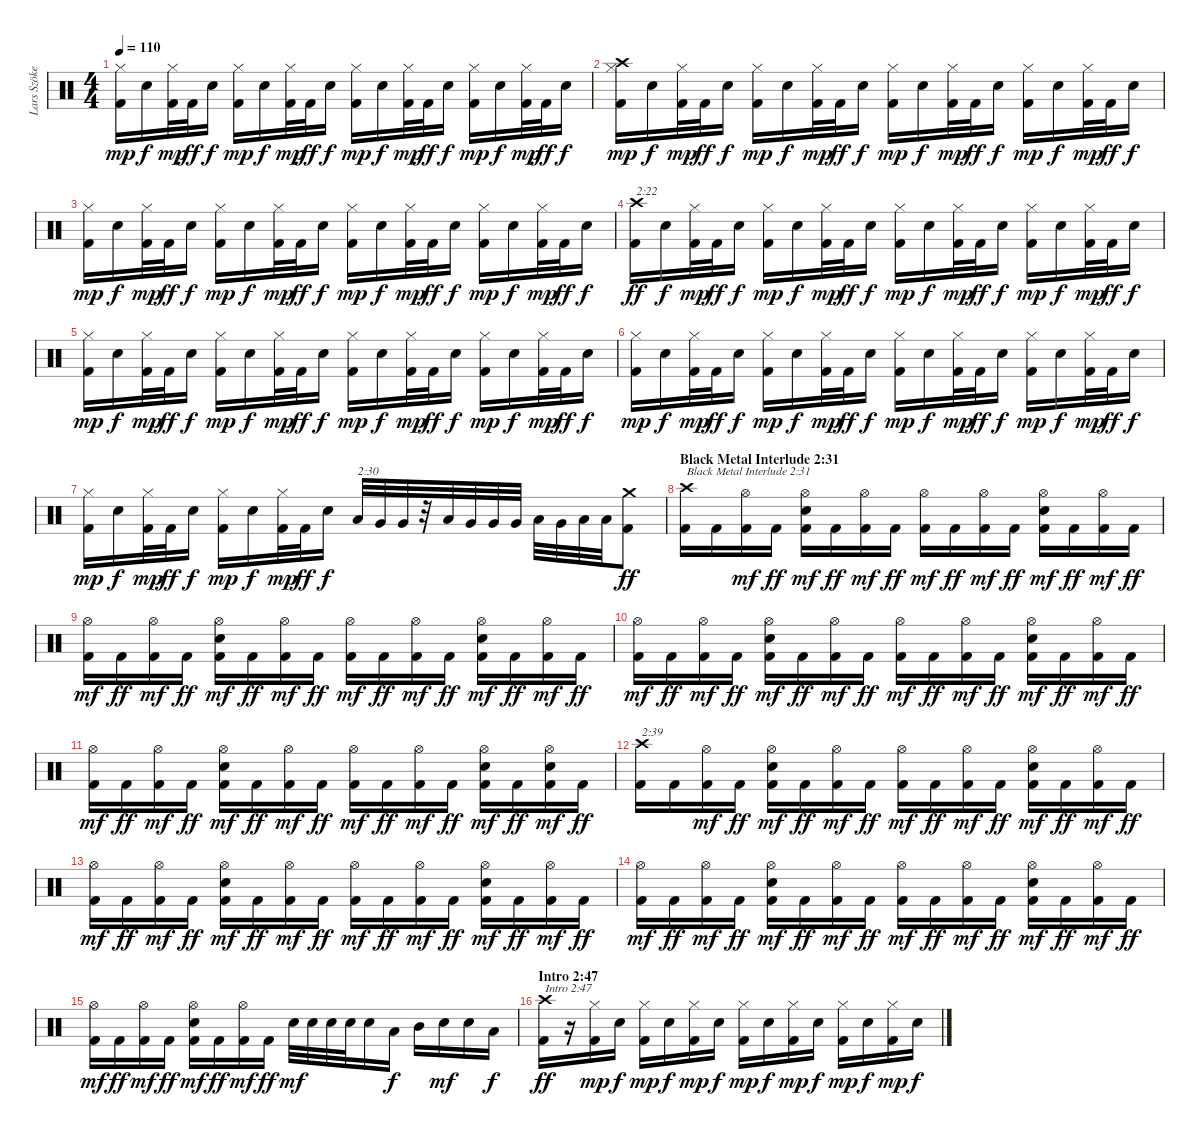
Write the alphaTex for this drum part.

\track ("Lars Szöke (Drums)" "Lars Szöke") {instrument percussion}
\staff {score}
\articulation defaults
\ts (4 4)
\tempo 110
\clef neutral
\ks c
("Kick (hit) 2" "Hi-Hat (closed)").16{dy mp} "Electric Snare (hit)".16{dy f} ("Kick (hit) 2" "Hi-Hat (closed)").32{dy mp} "Kick (hit) 2".32{dy ff} "Electric Snare (hit)".16{dy f} ("Kick (hit) 2" "Hi-Hat (closed)").16{dy mp} "Electric Snare (hit)".16{dy f} ("Kick (hit) 2" "Hi-Hat (closed)").32{dy mp} "Kick (hit) 2".32{dy ff} "Electric Snare (hit)".16{dy f} ("Kick (hit) 2" "Hi-Hat (closed)").16{dy mp} "Electric Snare (hit)".16{dy f} ("Kick (hit) 2" "Hi-Hat (closed)").32{dy mp} "Kick (hit) 2".32{dy ff} "Electric Snare (hit)".16{dy f} ("Kick (hit) 2" "Hi-Hat (closed)").16{dy mp} "Electric Snare (hit)".16{dy f} ("Kick (hit) 2" "Hi-Hat (closed)").32{dy mp} "Kick (hit) 2".32{dy ff} "Electric Snare (hit)".16{dy f} |
("Kick (hit) 2" "Hi-Hat (closed)" "Crash high (hit)").16{dy mp} "Electric Snare (hit)".16{dy f} ("Kick (hit) 2" "Hi-Hat (closed)").32{dy mp} "Kick (hit) 2".32{dy ff} "Electric Snare (hit)".16{dy f} ("Kick (hit) 2" "Hi-Hat (closed)").16{dy mp} "Electric Snare (hit)".16{dy f} ("Kick (hit) 2" "Hi-Hat (closed)").32{dy mp} "Kick (hit) 2".32{dy ff} "Electric Snare (hit)".16{dy f} ("Kick (hit) 2" "Hi-Hat (closed)").16{dy mp} "Electric Snare (hit)".16{dy f} ("Kick (hit) 2" "Hi-Hat (closed)").32{dy mp} "Kick (hit) 2".32{dy ff} "Electric Snare (hit)".16{dy f} ("Kick (hit) 2" "Hi-Hat (closed)").16{dy mp} "Electric Snare (hit)".16{dy f} ("Kick (hit) 2" "Hi-Hat (closed)").32{dy mp} "Kick (hit) 2".32{dy ff} "Electric Snare (hit)".16{dy f} |
("Kick (hit) 2" "Hi-Hat (closed)").16{dy mp} "Electric Snare (hit)".16{dy f} ("Kick (hit) 2" "Hi-Hat (closed)").32{dy mp} "Kick (hit) 2".32{dy ff} "Electric Snare (hit)".16{dy f} ("Kick (hit) 2" "Hi-Hat (closed)").16{dy mp} "Electric Snare (hit)".16{dy f} ("Kick (hit) 2" "Hi-Hat (closed)").32{dy mp} "Kick (hit) 2".32{dy ff} "Electric Snare (hit)".16{dy f} ("Kick (hit) 2" "Hi-Hat (closed)").16{dy mp} "Electric Snare (hit)".16{dy f} ("Kick (hit) 2" "Hi-Hat (closed)").32{dy mp} "Kick (hit) 2".32{dy ff} "Electric Snare (hit)".16{dy f} ("Kick (hit) 2" "Hi-Hat (closed)").16{dy mp} "Electric Snare (hit)".16{dy f} ("Kick (hit) 2" "Hi-Hat (closed)").32{dy mp} "Kick (hit) 2".32{dy ff} "Electric Snare (hit)".16{dy f} |
("Kick (hit) 2" "Crash high (hit)").16{txt "2:22" dy ff} "Electric Snare (hit)".16{dy f} ("Kick (hit) 2" "Hi-Hat (closed)").32{dy mp} "Kick (hit) 2".32{dy ff} "Electric Snare (hit)".16{dy f} ("Kick (hit) 2" "Hi-Hat (closed)").16{dy mp} "Electric Snare (hit)".16{dy f} ("Kick (hit) 2" "Hi-Hat (closed)").32{dy mp} "Kick (hit) 2".32{dy ff} "Electric Snare (hit)".16{dy f} ("Kick (hit) 2" "Hi-Hat (closed)").16{dy mp} "Electric Snare (hit)".16{dy f} ("Kick (hit) 2" "Hi-Hat (closed)").32{dy mp} "Kick (hit) 2".32{dy ff} "Electric Snare (hit)".16{dy f} ("Kick (hit) 2" "Hi-Hat (closed)").16{dy mp} "Electric Snare (hit)".16{dy f} ("Kick (hit) 2" "Hi-Hat (closed)").32{dy mp} "Kick (hit) 2".32{dy ff} "Electric Snare (hit)".16{dy f} |
("Kick (hit) 2" "Hi-Hat (closed)").16{dy mp} "Electric Snare (hit)".16{dy f} ("Kick (hit) 2" "Hi-Hat (closed)").32{dy mp} "Kick (hit) 2".32{dy ff} "Electric Snare (hit)".16{dy f} ("Kick (hit) 2" "Hi-Hat (closed)").16{dy mp} "Electric Snare (hit)".16{dy f} ("Kick (hit) 2" "Hi-Hat (closed)").32{dy mp} "Kick (hit) 2".32{dy ff} "Electric Snare (hit)".16{dy f} ("Kick (hit) 2" "Hi-Hat (closed)").16{dy mp} "Electric Snare (hit)".16{dy f} ("Kick (hit) 2" "Hi-Hat (closed)").32{dy mp} "Kick (hit) 2".32{dy ff} "Electric Snare (hit)".16{dy f} ("Kick (hit) 2" "Hi-Hat (closed)").16{dy mp} "Electric Snare (hit)".16{dy f} ("Kick (hit) 2" "Hi-Hat (closed)").32{dy mp} "Kick (hit) 2".32{dy ff} "Electric Snare (hit)".16{dy f} |
("Kick (hit) 2" "Hi-Hat (closed)").16{dy mp} "Electric Snare (hit)".16{dy f} ("Kick (hit) 2" "Hi-Hat (closed)").32{dy mp} "Kick (hit) 2".32{dy ff} "Electric Snare (hit)".16{dy f} ("Kick (hit) 2" "Hi-Hat (closed)").16{dy mp} "Electric Snare (hit)".16{dy f} ("Kick (hit) 2" "Hi-Hat (closed)").32{dy mp} "Kick (hit) 2".32{dy ff} "Electric Snare (hit)".16{dy f} ("Kick (hit) 2" "Hi-Hat (closed)").16{dy mp} "Electric Snare (hit)".16{dy f} ("Kick (hit) 2" "Hi-Hat (closed)").32{dy mp} "Kick (hit) 2".32{dy ff} "Electric Snare (hit)".16{dy f} ("Kick (hit) 2" "Hi-Hat (closed)").16{dy mp} "Electric Snare (hit)".16{dy f} ("Kick (hit) 2" "Hi-Hat (closed)").32{dy mp} "Kick (hit) 2".32{dy ff} "Electric Snare (hit)".16{dy f} |
("Kick (hit) 2" "Hi-Hat (closed)").16{dy mp} "Electric Snare (hit)".16{dy f} ("Kick (hit) 2" "Hi-Hat (closed)").32{dy mp} "Kick (hit) 2".32{dy ff} "Electric Snare (hit)".16{dy f} ("Kick (hit) 2" "Hi-Hat (closed)").16{dy mp} "Electric Snare (hit)".16{dy f} ("Kick (hit) 2" "Hi-Hat (closed)").32{dy mp} "Kick (hit) 2".32{dy ff} "Electric Snare (hit)".16{dy f} "Low Tom (hit)".32{txt "2:30"} "Very Low Tom (hit)".32 "Very Low Tom (hit)".32 r.32 "Low Tom (hit)".32 "Very Low Tom (hit)".32 "Very Low Tom (hit)".32 "Very Low Tom (hit)".32 "Low Tom (hit)".32 "Very Low Tom (hit)".32 "Low Floor Tom (hit)".32 "Low Floor Tom (hit)".32 ("Kick (hit) 2" "Crash medium (hit)").8{dy ff} |
\section ("" "Black Metal Interlude 2:31")
("Kick (hit) 2" "Crash high (hit)").16{txt "Black Metal Interlude 2:31"} "Kick (hit) 2".16 ("Kick (hit) 2" "Hi-Hat (open)").16{dy mf} "Kick (hit) 2".16{dy ff} ("Kick (hit) 2" "Electric Snare (hit)" "Hi-Hat (open)").16{dy mf} "Kick (hit) 2".16{dy ff} ("Kick (hit) 2" "Hi-Hat (open)").16{dy mf} "Kick (hit) 2".16{dy ff} ("Kick (hit) 2" "Hi-Hat (open)").16{dy mf} "Kick (hit) 2".16{dy ff} ("Kick (hit) 2" "Hi-Hat (open)").16{dy mf} "Kick (hit) 2".16{dy ff} ("Kick (hit) 2" "Electric Snare (hit)" "Hi-Hat (open)").16{dy mf} "Kick (hit) 2".16{dy ff} ("Kick (hit) 2" "Hi-Hat (open)").16{dy mf} "Kick (hit) 2".16{dy ff} |
("Kick (hit) 2" "Hi-Hat (open)").16{dy mf} "Kick (hit) 2".16{dy ff} ("Kick (hit) 2" "Hi-Hat (open)").16{dy mf} "Kick (hit) 2".16{dy ff} ("Kick (hit) 2" "Electric Snare (hit)" "Hi-Hat (open)").16{dy mf} "Kick (hit) 2".16{dy ff} ("Kick (hit) 2" "Hi-Hat (open)").16{dy mf} "Kick (hit) 2".16{dy ff} ("Kick (hit) 2" "Hi-Hat (open)").16{dy mf} "Kick (hit) 2".16{dy ff} ("Kick (hit) 2" "Hi-Hat (open)").16{dy mf} "Kick (hit) 2".16{dy ff} ("Kick (hit) 2" "Electric Snare (hit)" "Hi-Hat (open)").16{dy mf} "Kick (hit) 2".16{dy ff} ("Kick (hit) 2" "Hi-Hat (open)").16{dy mf} "Kick (hit) 2".16{dy ff} |
("Kick (hit) 2" "Hi-Hat (open)").16{dy mf} "Kick (hit) 2".16{dy ff} ("Kick (hit) 2" "Hi-Hat (open)").16{dy mf} "Kick (hit) 2".16{dy ff} ("Kick (hit) 2" "Electric Snare (hit)" "Hi-Hat (open)").16{dy mf} "Kick (hit) 2".16{dy ff} ("Kick (hit) 2" "Hi-Hat (open)").16{dy mf} "Kick (hit) 2".16{dy ff} ("Kick (hit) 2" "Hi-Hat (open)").16{dy mf} "Kick (hit) 2".16{dy ff} ("Kick (hit) 2" "Hi-Hat (open)").16{dy mf} "Kick (hit) 2".16{dy ff} ("Kick (hit) 2" "Electric Snare (hit)" "Hi-Hat (open)").16{dy mf} "Kick (hit) 2".16{dy ff} ("Kick (hit) 2" "Hi-Hat (open)").16{dy mf} "Kick (hit) 2".16{dy ff} |
("Kick (hit) 2" "Hi-Hat (open)").16{dy mf} "Kick (hit) 2".16{dy ff} ("Kick (hit) 2" "Hi-Hat (open)").16{dy mf} "Kick (hit) 2".16{dy ff} ("Kick (hit) 2" "Electric Snare (hit)" "Hi-Hat (open)").16{dy mf} "Kick (hit) 2".16{dy ff} ("Kick (hit) 2" "Hi-Hat (open)").16{dy mf} "Kick (hit) 2".16{dy ff} ("Kick (hit) 2" "Hi-Hat (open)").16{dy mf} "Kick (hit) 2".16{dy ff} ("Kick (hit) 2" "Hi-Hat (open)").16{dy mf} "Kick (hit) 2".16{dy ff} ("Kick (hit) 2" "Electric Snare (hit)" "Hi-Hat (open)").16{dy mf} "Kick (hit) 2".16{dy ff} ("Kick (hit) 2" "Electric Snare (hit)" "Hi-Hat (open)").16{dy mf} "Kick (hit) 2".16{dy ff} |
("Kick (hit) 2" "Crash high (hit)").16{txt "2:39"} "Kick (hit) 2".16 ("Kick (hit) 2" "Hi-Hat (open)").16{dy mf} "Kick (hit) 2".16{dy ff} ("Kick (hit) 2" "Electric Snare (hit)" "Hi-Hat (open)").16{dy mf} "Kick (hit) 2".16{dy ff} ("Kick (hit) 2" "Hi-Hat (open)").16{dy mf} "Kick (hit) 2".16{dy ff} ("Kick (hit) 2" "Hi-Hat (open)").16{dy mf} "Kick (hit) 2".16{dy ff} ("Kick (hit) 2" "Hi-Hat (open)").16{dy mf} "Kick (hit) 2".16{dy ff} ("Kick (hit) 2" "Electric Snare (hit)" "Hi-Hat (open)").16{dy mf} "Kick (hit) 2".16{dy ff} ("Kick (hit) 2" "Hi-Hat (open)").16{dy mf} "Kick (hit) 2".16{dy ff} |
("Kick (hit) 2" "Hi-Hat (open)").16{dy mf} "Kick (hit) 2".16{dy ff} ("Kick (hit) 2" "Hi-Hat (open)").16{dy mf} "Kick (hit) 2".16{dy ff} ("Kick (hit) 2" "Electric Snare (hit)" "Hi-Hat (open)").16{dy mf} "Kick (hit) 2".16{dy ff} ("Kick (hit) 2" "Hi-Hat (open)").16{dy mf} "Kick (hit) 2".16{dy ff} ("Kick (hit) 2" "Hi-Hat (open)").16{dy mf} "Kick (hit) 2".16{dy ff} ("Kick (hit) 2" "Hi-Hat (open)").16{dy mf} "Kick (hit) 2".16{dy ff} ("Kick (hit) 2" "Electric Snare (hit)" "Hi-Hat (open)").16{dy mf} "Kick (hit) 2".16{dy ff} ("Kick (hit) 2" "Hi-Hat (open)").16{dy mf} "Kick (hit) 2".16{dy ff} |
("Kick (hit) 2" "Hi-Hat (open)").16{dy mf} "Kick (hit) 2".16{dy ff} ("Kick (hit) 2" "Hi-Hat (open)").16{dy mf} "Kick (hit) 2".16{dy ff} ("Kick (hit) 2" "Electric Snare (hit)" "Hi-Hat (open)").16{dy mf} "Kick (hit) 2".16{dy ff} ("Kick (hit) 2" "Hi-Hat (open)").16{dy mf} "Kick (hit) 2".16{dy ff} ("Kick (hit) 2" "Hi-Hat (open)").16{dy mf} "Kick (hit) 2".16{dy ff} ("Kick (hit) 2" "Hi-Hat (open)").16{dy mf} "Kick (hit) 2".16{dy ff} ("Kick (hit) 2" "Electric Snare (hit)" "Hi-Hat (open)").16{dy mf} "Kick (hit) 2".16{dy ff} ("Kick (hit) 2" "Hi-Hat (open)").16{dy mf} "Kick (hit) 2".16{dy ff} |
("Kick (hit) 2" "Hi-Hat (open)").16{dy mf} "Kick (hit) 2".16{dy ff} ("Kick (hit) 2" "Hi-Hat (open)").16{dy mf} "Kick (hit) 2".16{dy ff} ("Kick (hit) 2" "Electric Snare (hit)" "Hi-Hat (open)").16{dy mf} "Kick (hit) 2".16{dy ff} ("Kick (hit) 2" "Hi-Hat (open)").16{dy mf} "Kick (hit) 2".16{dy ff} "Electric Snare (hit)".32{dy mf} "Electric Snare (hit)".32 "Electric Snare (hit)".32 "Electric Snare (hit)".32 "Electric Snare (hit)".16 "Low Tom (hit)".16{dy f} "Mid Tom (hit)".16 "Electric Snare (hit)".16{dy mf} "Electric Snare (hit)".16 "Low Tom (hit)".16{dy f} |
\section ("" "Intro 2:47")
("Kick (hit) 2" "Crash high (hit)").16{txt "Intro 2:47" dy ff} r.16 ("Kick (hit) 2" "Hi-Hat (closed)").16{dy mp} "Electric Snare (hit)".16{dy f} ("Kick (hit) 2" "Hi-Hat (closed)").16{dy mp} "Electric Snare (hit)".16{dy f} ("Kick (hit) 2" "Hi-Hat (closed)").16{dy mp} "Electric Snare (hit)".16{dy f} ("Kick (hit) 2" "Hi-Hat (closed)").16{dy mp} "Electric Snare (hit)".16{dy f} ("Kick (hit) 2" "Hi-Hat (closed)").16{dy mp} "Electric Snare (hit)".16{dy f} ("Kick (hit) 2" "Hi-Hat (closed)").16{dy mp} "Electric Snare (hit)".16{dy f} ("Kick (hit) 2" "Hi-Hat (closed)").16{dy mp} "Electric Snare (hit)".16{dy f}
